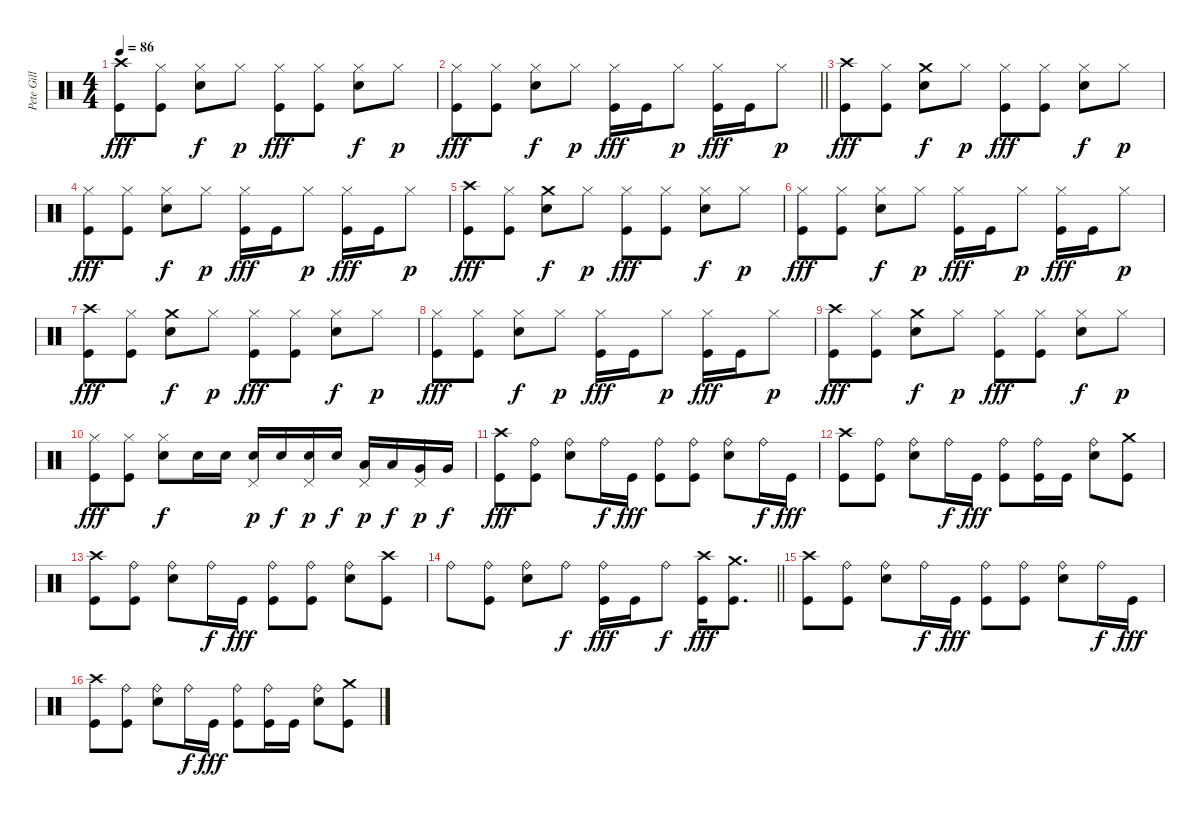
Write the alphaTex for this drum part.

\track ("Pete Gill" "Pete Gill") {instrument percussion}
\staff {score}
\articulation defaults
\ts (4 4)
\tempo 86
\clef neutral
\ks c
("Crash high (hit)" "Kick (hit)").8{dy fff} ("Hi-Hat (closed)" "Kick (hit)").8 ("Hi-Hat (closed)" "Electric Snare (hit)").8{dy f} "Hi-Hat (closed)".8{dy p} ("Hi-Hat (closed)" "Kick (hit)").8{dy fff} ("Hi-Hat (closed)" "Kick (hit)").8 ("Hi-Hat (closed)" "Electric Snare (hit)").8{dy f} "Hi-Hat (closed)".8{dy p} |
\barLineRight lightlight
("Hi-Hat (closed)" "Kick (hit)").8{dy fff} ("Hi-Hat (closed)" "Kick (hit)").8 ("Hi-Hat (closed)" "Electric Snare (hit)").8{dy f} "Hi-Hat (closed)".8{dy p} ("Hi-Hat (closed)" "Kick (hit)").16{dy fff} "Kick (hit)".16 "Hi-Hat (closed)".8{dy p} ("Hi-Hat (closed)" "Kick (hit)").16{dy fff} "Kick (hit)".16 "Hi-Hat (closed)".8{dy p} |
("Crash high (hit)" "Kick (hit)").8{dy fff} ("Hi-Hat (closed)" "Kick (hit)").8 ("Crash medium (hit)" "Electric Snare (hit)").8{dy f} "Hi-Hat (closed)".8{dy p} ("Hi-Hat (closed)" "Kick (hit)").8{dy fff} ("Hi-Hat (closed)" "Kick (hit)").8 ("Hi-Hat (closed)" "Electric Snare (hit)").8{dy f} "Hi-Hat (closed)".8{dy p} |
("Hi-Hat (closed)" "Kick (hit)").8{dy fff} ("Hi-Hat (closed)" "Kick (hit)").8 ("Hi-Hat (closed)" "Electric Snare (hit)").8{dy f} "Hi-Hat (closed)".8{dy p} ("Hi-Hat (closed)" "Kick (hit)").16{dy fff} "Kick (hit)".16 "Hi-Hat (closed)".8{dy p} ("Hi-Hat (closed)" "Kick (hit)").16{dy fff} "Kick (hit)".16 "Hi-Hat (closed)".8{dy p} |
("Crash high (hit)" "Kick (hit)").8{dy fff} ("Hi-Hat (closed)" "Kick (hit)").8 ("Crash medium (hit)" "Electric Snare (hit)").8{dy f} "Hi-Hat (closed)".8{dy p} ("Hi-Hat (closed)" "Kick (hit)").8{dy fff} ("Hi-Hat (closed)" "Kick (hit)").8 ("Hi-Hat (closed)" "Electric Snare (hit)").8{dy f} "Hi-Hat (closed)".8{dy p} |
("Hi-Hat (closed)" "Kick (hit)").8{dy fff} ("Hi-Hat (closed)" "Kick (hit)").8 ("Hi-Hat (closed)" "Electric Snare (hit)").8{dy f} "Hi-Hat (closed)".8{dy p} ("Hi-Hat (closed)" "Kick (hit)").16{dy fff} "Kick (hit)".16 "Hi-Hat (closed)".8{dy p} ("Hi-Hat (closed)" "Kick (hit)").16{dy fff} "Kick (hit)".16 "Hi-Hat (closed)".8{dy p} |
("Crash high (hit)" "Kick (hit)").8{dy fff} ("Hi-Hat (closed)" "Kick (hit)").8 ("Crash medium (hit)" "Electric Snare (hit)").8{dy f} "Hi-Hat (closed)".8{dy p} ("Hi-Hat (closed)" "Kick (hit)").8{dy fff} ("Hi-Hat (closed)" "Kick (hit)").8 ("Hi-Hat (closed)" "Electric Snare (hit)").8{dy f} "Hi-Hat (closed)".8{dy p} |
("Hi-Hat (closed)" "Kick (hit)").8{dy fff} ("Hi-Hat (closed)" "Kick (hit)").8 ("Hi-Hat (closed)" "Electric Snare (hit)").8{dy f} "Hi-Hat (closed)".8{dy p} ("Hi-Hat (closed)" "Kick (hit)").16{dy fff} "Kick (hit)".16 "Hi-Hat (closed)".8{dy p} ("Hi-Hat (closed)" "Kick (hit)").16{dy fff} "Kick (hit)".16 "Hi-Hat (closed)".8{dy p} |
("Crash high (hit)" "Kick (hit)").8{dy fff} ("Hi-Hat (closed)" "Kick (hit)").8 ("Crash medium (hit)" "Electric Snare (hit)").8{dy f} "Hi-Hat (closed)".8{dy p} ("Hi-Hat (closed)" "Kick (hit)").8{dy fff} ("Hi-Hat (closed)" "Kick (hit)").8 ("Hi-Hat (closed)" "Electric Snare (hit)").8{dy f} "Hi-Hat (closed)".8{dy p} |
("Hi-Hat (closed)" "Kick (hit)").8{dy fff} ("Hi-Hat (closed)" "Kick (hit)").8 ("Hi-Hat (closed)" "Electric Snare (hit)").8{dy f} "Electric Snare (hit)".16 "Electric Snare (hit)".16 ("Pedal Hi-Hat (hit)" "Electric Snare (hit)").16{dy p} "Electric Snare (hit)".16{dy f} ("Pedal Hi-Hat (hit)" "Electric Snare (hit)").16{dy p} "Electric Snare (hit)".16{dy f} ("Pedal Hi-Hat (hit)" "Low Tom (hit)").16{dy p} "Low Tom (hit)".16{dy f} ("Pedal Hi-Hat (hit)" "Very Low Tom (hit)").16{dy p} "Very Low Tom (hit)".16{dy f} |
("Crash high (hit)" "Kick (hit)").8{dy fff} ("Ride (bell)" "Kick (hit)").8 ("Ride (bell)" "Electric Snare (hit)").8 "Ride (bell)".16{dy f} "Kick (hit)".16{dy fff} ("Ride (bell)" "Kick (hit)").8 ("Ride (bell)" "Kick (hit)").8 ("Ride (bell)" "Electric Snare (hit)").8 "Ride (bell)".16{dy f} "Kick (hit)".16{dy fff} |
("Crash high (hit)" "Kick (hit)").8 ("Ride (bell)" "Kick (hit)").8 ("Ride (bell)" "Electric Snare (hit)").8 "Ride (bell)".16{dy f} "Kick (hit)".16{dy fff} ("Ride (bell)" "Kick (hit)").8 ("Ride (bell)" "Kick (hit)").16 "Kick (hit)".16 ("Ride (bell)" "Electric Snare (hit)").8 ("Crash medium (hit)" "Kick (hit)").8 |
("Crash high (hit)" "Kick (hit)").8 ("Ride (bell)" "Kick (hit)").8 ("Ride (bell)" "Electric Snare (hit)").8 "Ride (bell)".16{dy f} "Kick (hit)".16{dy fff} ("Ride (bell)" "Kick (hit)").8 ("Ride (bell)" "Kick (hit)").8 ("Ride (bell)" "Electric Snare (hit)").8 ("Crash high (hit)" "Kick (hit)").8 |
\barLineRight lightlight "Ride (bell)".8
("Ride (bell)" "Kick (hit)").8 ("Ride (bell)" "Electric Snare (hit)").8 "Ride (bell)".8{dy f} ("Ride (bell)" "Kick (hit)").16{dy fff} "Kick (hit)".16 "Ride (bell)".8{dy f} ("Crash high (hit)" "Kick (hit)").16{dy fff} ("Crash medium (hit)" "Kick (hit)").8{d} |
("Crash high (hit)" "Kick (hit)").8 ("Ride (bell)" "Kick (hit)").8 ("Ride (bell)" "Electric Snare (hit)").8 "Ride (bell)".16{dy f} "Kick (hit)".16{dy fff} ("Ride (bell)" "Kick (hit)").8 ("Ride (bell)" "Kick (hit)").8 ("Ride (bell)" "Electric Snare (hit)").8 "Ride (bell)".16{dy f} "Kick (hit)".16{dy fff} |
("Crash high (hit)" "Kick (hit)").8 ("Ride (bell)" "Kick (hit)").8 ("Ride (bell)" "Electric Snare (hit)").8 "Ride (bell)".16{dy f} "Kick (hit)".16{dy fff} ("Ride (bell)" "Kick (hit)").8 ("Ride (bell)" "Kick (hit)").16 "Kick (hit)".16 ("Ride (bell)" "Electric Snare (hit)").8 ("Crash medium (hit)" "Kick (hit)").8
